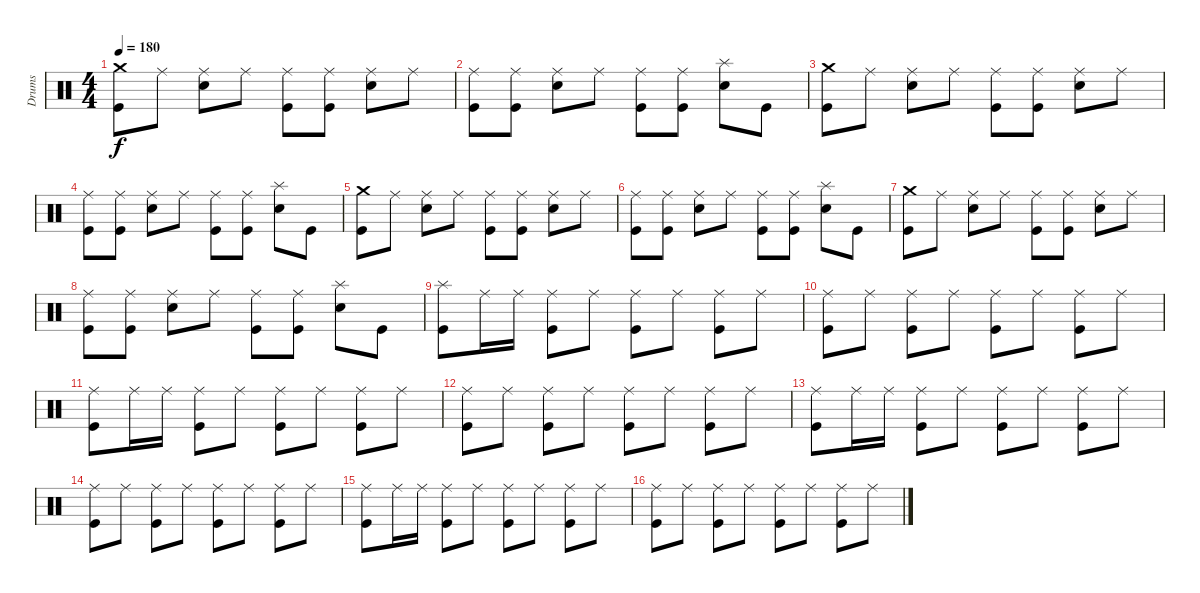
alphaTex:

\track ("Drums" "Drums") {instrument percussion}
\staff {score}
\articulation defaults
\ts (4 4)
\tempo 180
\clef neutral
\ks c
("Crash medium (hit)" "Kick (hit)").8{dy f} "Ride (middle)".8 ("Ride (middle)" "Electric Snare (hit)").8 "Ride (middle)".8 ("Ride (middle)" "Kick (hit)").8 ("Ride (middle)" "Kick (hit)").8 ("Ride (middle)" "Electric Snare (hit)").8 "Ride (middle)".8 |
("Ride (middle)" "Kick (hit)").8 ("Ride (middle)" "Kick (hit)").8 ("Ride (middle)" "Electric Snare (hit)").8 "Ride (middle)".8 ("Ride (middle)" "Kick (hit)").8 ("Ride (middle)" "Kick (hit)").8 ("Splash (hit)" "Electric Snare (hit)").8 "Kick (hit)".8 |
("Crash medium (hit)" "Kick (hit)").8 "Ride (middle)".8 ("Ride (middle)" "Electric Snare (hit)").8 "Ride (middle)".8 ("Ride (middle)" "Kick (hit)").8 ("Ride (middle)" "Kick (hit)").8 ("Ride (middle)" "Electric Snare (hit)").8 "Ride (middle)".8 |
("Ride (middle)" "Kick (hit)").8 ("Ride (middle)" "Kick (hit)").8 ("Ride (middle)" "Electric Snare (hit)").8 "Ride (middle)".8 ("Ride (middle)" "Kick (hit)").8 ("Ride (middle)" "Kick (hit)").8 ("Splash (hit)" "Electric Snare (hit)").8 "Kick (hit)".8 |
("Crash medium (hit)" "Kick (hit)").8 "Ride (middle)".8 ("Ride (middle)" "Electric Snare (hit)").8 "Ride (middle)".8 ("Ride (middle)" "Kick (hit)").8 ("Ride (middle)" "Kick (hit)").8 ("Ride (middle)" "Electric Snare (hit)").8 "Ride (middle)".8 |
("Ride (middle)" "Kick (hit)").8 ("Ride (middle)" "Kick (hit)").8 ("Ride (middle)" "Electric Snare (hit)").8 "Ride (middle)".8 ("Ride (middle)" "Kick (hit)").8 ("Ride (middle)" "Kick (hit)").8 ("Splash (hit)" "Electric Snare (hit)").8 "Kick (hit)".8 |
("Crash medium (hit)" "Kick (hit)").8 "Ride (middle)".8 ("Ride (middle)" "Electric Snare (hit)").8 "Ride (middle)".8 ("Ride (middle)" "Kick (hit)").8 ("Ride (middle)" "Kick (hit)").8 ("Ride (middle)" "Electric Snare (hit)").8 "Ride (middle)".8 |
("Ride (middle)" "Kick (hit)").8 ("Ride (middle)" "Kick (hit)").8 ("Ride (middle)" "Electric Snare (hit)").8 "Ride (middle)".8 ("Ride (middle)" "Kick (hit)").8 ("Ride (middle)" "Kick (hit)").8 ("Splash (hit)" "Electric Snare (hit)").8 "Kick (hit)".8 |
("Splash (hit)" "Kick (hit)").8 "Ride (middle)".16 "Ride (middle)".16 ("Ride (middle)" "Kick (hit)").8 "Ride (middle)".8 ("Ride (middle)" "Kick (hit)").8 "Ride (middle)".8 ("Ride (middle)" "Kick (hit)").8 "Ride (middle)".8 |
("Ride (middle)" "Kick (hit)").8 "Ride (middle)".8 ("Ride (middle)" "Kick (hit)").8 "Ride (middle)".8 ("Ride (middle)" "Kick (hit)").8 "Ride (middle)".8 ("Ride (middle)" "Kick (hit)").8 "Ride (middle)".8 |
("Ride (middle)" "Kick (hit)").8 "Ride (middle)".16 "Ride (middle)".16 ("Ride (middle)" "Kick (hit)").8 "Ride (middle)".8 ("Ride (middle)" "Kick (hit)").8 "Ride (middle)".8 ("Ride (middle)" "Kick (hit)").8 "Ride (middle)".8 |
("Ride (middle)" "Kick (hit)").8 "Ride (middle)".8 ("Ride (middle)" "Kick (hit)").8 "Ride (middle)".8 ("Ride (middle)" "Kick (hit)").8 "Ride (middle)".8 ("Ride (middle)" "Kick (hit)").8 "Ride (middle)".8 |
("Ride (middle)" "Kick (hit)").8 "Ride (middle)".16 "Ride (middle)".16 ("Ride (middle)" "Kick (hit)").8 "Ride (middle)".8 ("Ride (middle)" "Kick (hit)").8 "Ride (middle)".8 ("Ride (middle)" "Kick (hit)").8 "Ride (middle)".8 |
("Ride (middle)" "Kick (hit)").8 "Ride (middle)".8 ("Ride (middle)" "Kick (hit)").8 "Ride (middle)".8 ("Ride (middle)" "Kick (hit)").8 "Ride (middle)".8 ("Ride (middle)" "Kick (hit)").8 "Ride (middle)".8 |
("Ride (middle)" "Kick (hit)").8 "Ride (middle)".16 "Ride (middle)".16 ("Ride (middle)" "Kick (hit)").8 "Ride (middle)".8 ("Ride (middle)" "Kick (hit)").8 "Ride (middle)".8 ("Ride (middle)" "Kick (hit)").8 "Ride (middle)".8 |
("Ride (middle)" "Kick (hit)").8 "Ride (middle)".8 ("Ride (middle)" "Kick (hit)").8 "Ride (middle)".8 ("Ride (middle)" "Kick (hit)").8 "Ride (middle)".8 ("Ride (middle)" "Kick (hit)").8 "Ride (middle)".8
